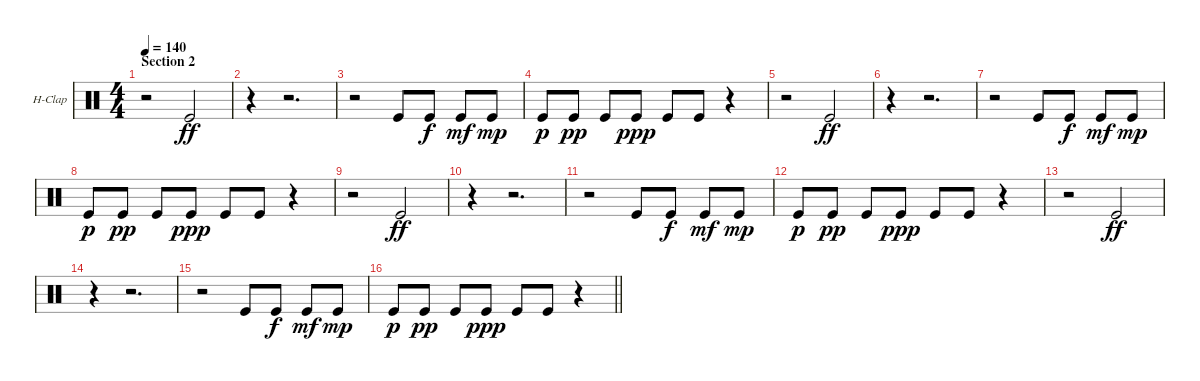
\bracketExtendMode groupsimilarinstruments
\firstSystemTrackNameOrientation horizontal
\otherSystemsTrackNameOrientation horizontal
\track ("Hand Clap" "H-Clap") {instrument percussion}
\staff {score}
\articulation defaults
\ts (4 4)
\section ("" "Section 2")
\tempo 140
\clef neutral
\ks c
r.2{dy ff} "Kick (hit)".2 |
r.4 r.2{d} |
r.2 "Kick (hit)".8 "Kick (hit)".8{dy f} "Kick (hit)".8{dy mf} "Kick (hit)".8{dy mp} |
"Kick (hit)".8{dy p} "Kick (hit)".8{dy pp} "Kick (hit)".8 "Kick (hit)".8{dy ppp} "Kick (hit)".8 "Kick (hit)".8 r.4 |
r.2 "Kick (hit)".2{dy ff} |
r.4 r.2{d} |
r.2 "Kick (hit)".8 "Kick (hit)".8{dy f} "Kick (hit)".8{dy mf} "Kick (hit)".8{dy mp} |
"Kick (hit)".8{dy p} "Kick (hit)".8{dy pp} "Kick (hit)".8 "Kick (hit)".8{dy ppp} "Kick (hit)".8 "Kick (hit)".8 r.4 |
r.2 "Kick (hit)".2{dy ff} |
r.4 r.2{d} |
r.2 "Kick (hit)".8 "Kick (hit)".8{dy f} "Kick (hit)".8{dy mf} "Kick (hit)".8{dy mp} |
"Kick (hit)".8{dy p} "Kick (hit)".8{dy pp} "Kick (hit)".8 "Kick (hit)".8{dy ppp} "Kick (hit)".8 "Kick (hit)".8 r.4 |
r.2 "Kick (hit)".2{dy ff} |
r.4 r.2{d} |
r.2 "Kick (hit)".8 "Kick (hit)".8{dy f} "Kick (hit)".8{dy mf} "Kick (hit)".8{dy mp} |
\barLineRight lightlight "Kick (hit)".8{dy p} "Kick (hit)".8{dy pp} "Kick (hit)".8 "Kick (hit)".8{dy ppp} "Kick (hit)".8 "Kick (hit)".8
r.4
